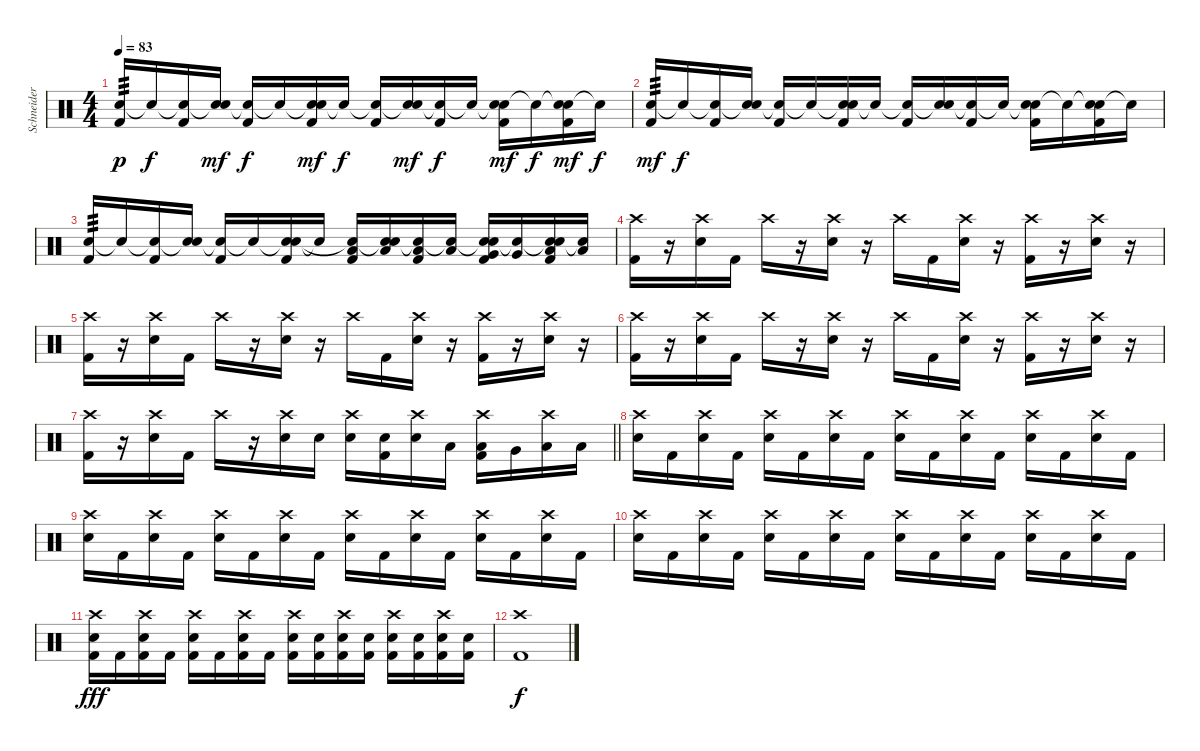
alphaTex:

\track ("Schneider" "Schneider") {instrument percussion}
\staff {score}
\articulation defaults
\ts (4 4)
\tempo 83
\clef neutral
\ks c
("Electric Snare (hit)" "Kick (hit) 2").16{tp 3 dy p} "Snare (hit)"{t}.16{dy f} ("Snare (hit)"{t} "Kick (hit) 2").16 ("Snare (hit)"{t} "Electric Snare (hit)").16{dy mf} ("Snare (hit)"{t} "Kick (hit) 2").16{dy f} "Snare (hit)"{t}.16 ("Snare (hit)"{t} "Electric Snare (hit)" "Kick (hit) 2").16{dy mf} "Snare (hit)"{t}.16{dy f} ("Snare (hit)"{t} "Kick (hit) 2").16 ("Snare (hit)"{t} "Electric Snare (hit)").16{dy mf} ("Snare (hit)"{t} "Kick (hit) 2").16{dy f} "Snare (hit)"{t}.16 ("Snare (hit)"{t} "Electric Snare (hit)" "Kick (hit) 2").16{dy mf} "Snare (hit)"{t}.16{dy f} ("Snare (hit)"{t} "Electric Snare (hit)" "Kick (hit) 2").16{dy mf} "Snare (hit)"{t}.16{dy f} |
("Electric Snare (hit)" "Kick (hit) 2").16{tp 3 dy mf} "Snare (hit)"{t}.16{dy f} ("Snare (hit)"{t} "Kick (hit) 2").16 ("Snare (hit)"{t} "Electric Snare (hit)").16 ("Snare (hit)"{t} "Kick (hit) 2").16 "Snare (hit)"{t}.16 ("Snare (hit)"{t} "Electric Snare (hit)" "Kick (hit) 2").16 "Snare (hit)"{t}.16 ("Snare (hit)"{t} "Kick (hit) 2").16 ("Snare (hit)"{t} "Electric Snare (hit)").16 ("Snare (hit)"{t} "Kick (hit) 2").16 "Snare (hit)"{t}.16 ("Snare (hit)"{t} "Electric Snare (hit)" "Kick (hit) 2").16 "Snare (hit)"{t}.16 ("Snare (hit)"{t} "Electric Snare (hit)" "Kick (hit) 2").16 "Snare (hit)"{t}.16 |
("Electric Snare (hit)" "Kick (hit) 2").16{tp 3} "Snare (hit)"{t}.16 ("Snare (hit)"{t} "Kick (hit) 2").16 ("Snare (hit)"{t} "Electric Snare (hit)").16 ("Snare (hit)"{t} "Kick (hit) 2").16 "Snare (hit)"{t}.16 ("Snare (hit)"{t} "Electric Snare (hit)" "Kick (hit) 2").16 "Snare (hit)"{t}.16 ("Low Tom (hit)" "Snare (hit)"{t} "Kick (hit) 2").16 ("Low Tom (hit)" "Snare (hit)"{t} "Electric Snare (hit)").16 ("Low Tom (hit)" "Snare (hit)"{t} "Kick (hit) 2").16 ("Low Tom (hit)" "Snare (hit)"{t}).16 ("Very Low Tom (hit)" "Snare (hit)"{t} "Electric Snare (hit)" "Kick (hit) 2").16 ("Very Low Tom (hit)" "Snare (hit)"{t}).16 ("Low Floor Tom (hit)" "Snare (hit)"{t} "Electric Snare (hit)" "Kick (hit) 2").16 ("Low Floor Tom (hit)" "Snare (hit)"{t}).16 |
("Crash high (hit)" "Kick (hit) 2").16 r.16 ("Crash high (hit)" "Electric Snare (hit)").16 "Kick (hit) 2".16 "Crash high (hit)".16 r.16 ("Crash high (hit)" "Electric Snare (hit)").16 r.16 "Crash high (hit)".16 "Kick (hit) 2".16 ("Crash high (hit)" "Electric Snare (hit)").16 r.16 ("Crash high (hit)" "Kick (hit) 2").16 r.16 ("Crash high (hit)" "Electric Snare (hit)").16 r.16 |
("Crash high (hit)" "Kick (hit) 2").16 r.16 ("Crash high (hit)" "Electric Snare (hit)").16 "Kick (hit) 2".16 "Crash high (hit)".16 r.16 ("Crash high (hit)" "Electric Snare (hit)").16 r.16 "Crash high (hit)".16 "Kick (hit) 2".16 ("Crash high (hit)" "Electric Snare (hit)").16 r.16 ("Crash high (hit)" "Kick (hit) 2").16 r.16 ("Crash high (hit)" "Electric Snare (hit)").16 r.16 |
("Crash high (hit)" "Kick (hit) 2").16 r.16 ("Crash high (hit)" "Electric Snare (hit)").16 "Kick (hit) 2".16 "Crash high (hit)".16 r.16 ("Crash high (hit)" "Electric Snare (hit)").16 r.16 "Crash high (hit)".16 "Kick (hit) 2".16 ("Crash high (hit)" "Electric Snare (hit)").16 r.16 ("Crash high (hit)" "Kick (hit) 2").16 r.16 ("Crash high (hit)" "Electric Snare (hit)").16 r.16 |
\barLineRight lightlight
("Crash high (hit)" "Kick (hit) 2").16 r.16 ("Crash high (hit)" "Electric Snare (hit)").16 "Kick (hit) 2".16 "Crash high (hit)".16 r.16 ("Crash high (hit)" "Electric Snare (hit)").16 "Electric Snare (hit)".16 ("Crash high (hit)" "Electric Snare (hit)").16 ("Electric Snare (hit)" "Kick (hit) 2").16 ("Crash high (hit)" "Electric Snare (hit)").16 "Low Tom (hit)".16 ("Crash high (hit)" "Low Tom (hit)" "Kick (hit) 2").16 "Very Low Tom (hit)".16 ("Crash high (hit)" "Low Floor Tom (hit)").16 "Low Floor Tom (hit)".16 |
("Crash high (hit)" "Electric Snare (hit)").16 "Kick (hit) 2".16 ("Crash high (hit)" "Electric Snare (hit)").16 "Kick (hit) 2".16 ("Crash high (hit)" "Electric Snare (hit)").16 "Kick (hit) 2".16 ("Crash high (hit)" "Electric Snare (hit)").16 "Kick (hit) 2".16 ("Crash high (hit)" "Electric Snare (hit)").16 "Kick (hit) 2".16 ("Crash high (hit)" "Electric Snare (hit)").16 "Kick (hit) 2".16 ("Crash high (hit)" "Electric Snare (hit)").16 "Kick (hit) 2".16 ("Crash high (hit)" "Electric Snare (hit)").16 "Kick (hit) 2".16 |
("Crash high (hit)" "Electric Snare (hit)").16 "Kick (hit) 2".16 ("Crash high (hit)" "Electric Snare (hit)").16 "Kick (hit) 2".16 ("Crash high (hit)" "Electric Snare (hit)").16 "Kick (hit) 2".16 ("Crash high (hit)" "Electric Snare (hit)").16 "Kick (hit) 2".16 ("Crash high (hit)" "Electric Snare (hit)").16 "Kick (hit) 2".16 ("Crash high (hit)" "Electric Snare (hit)").16 "Kick (hit) 2".16 ("Crash high (hit)" "Electric Snare (hit)").16 "Kick (hit) 2".16 ("Crash high (hit)" "Electric Snare (hit)").16 "Kick (hit) 2".16 |
("Crash high (hit)" "Electric Snare (hit)").16 "Kick (hit) 2".16 ("Crash high (hit)" "Electric Snare (hit)").16 "Kick (hit) 2".16 ("Crash high (hit)" "Electric Snare (hit)").16 "Kick (hit) 2".16 ("Crash high (hit)" "Electric Snare (hit)").16 "Kick (hit) 2".16 ("Crash high (hit)" "Electric Snare (hit)").16 "Kick (hit) 2".16 ("Crash high (hit)" "Electric Snare (hit)").16 "Kick (hit) 2".16 ("Crash high (hit)" "Electric Snare (hit)").16 "Kick (hit) 2".16 ("Crash high (hit)" "Electric Snare (hit)").16 "Kick (hit) 2".16 |
("Crash high (hit)" "Electric Snare (hit)" "Kick (hit) 2").16{dy fff} "Kick (hit) 2".16 ("Crash high (hit)" "Electric Snare (hit)" "Kick (hit) 2").16 "Kick (hit) 2".16 ("Crash high (hit)" "Electric Snare (hit)" "Kick (hit) 2").16 "Kick (hit) 2".16 ("Crash high (hit)" "Electric Snare (hit)" "Kick (hit) 2").16 "Kick (hit) 2".16 ("Crash high (hit)" "Electric Snare (hit)" "Kick (hit) 2").16 ("Electric Snare (hit)" "Kick (hit) 2").16 ("Crash high (hit)" "Electric Snare (hit)" "Kick (hit) 2").16 ("Electric Snare (hit)" "Kick (hit) 2").16 ("Crash high (hit)" "Electric Snare (hit)" "Kick (hit) 2").16 ("Electric Snare (hit)" "Kick (hit) 2").16 ("Crash high (hit)" "Electric Snare (hit)" "Kick (hit) 2").16 ("Electric Snare (hit)" "Kick (hit) 2").16 |
("Crash high (hit)" "Kick (hit) 2").1{dy f}
